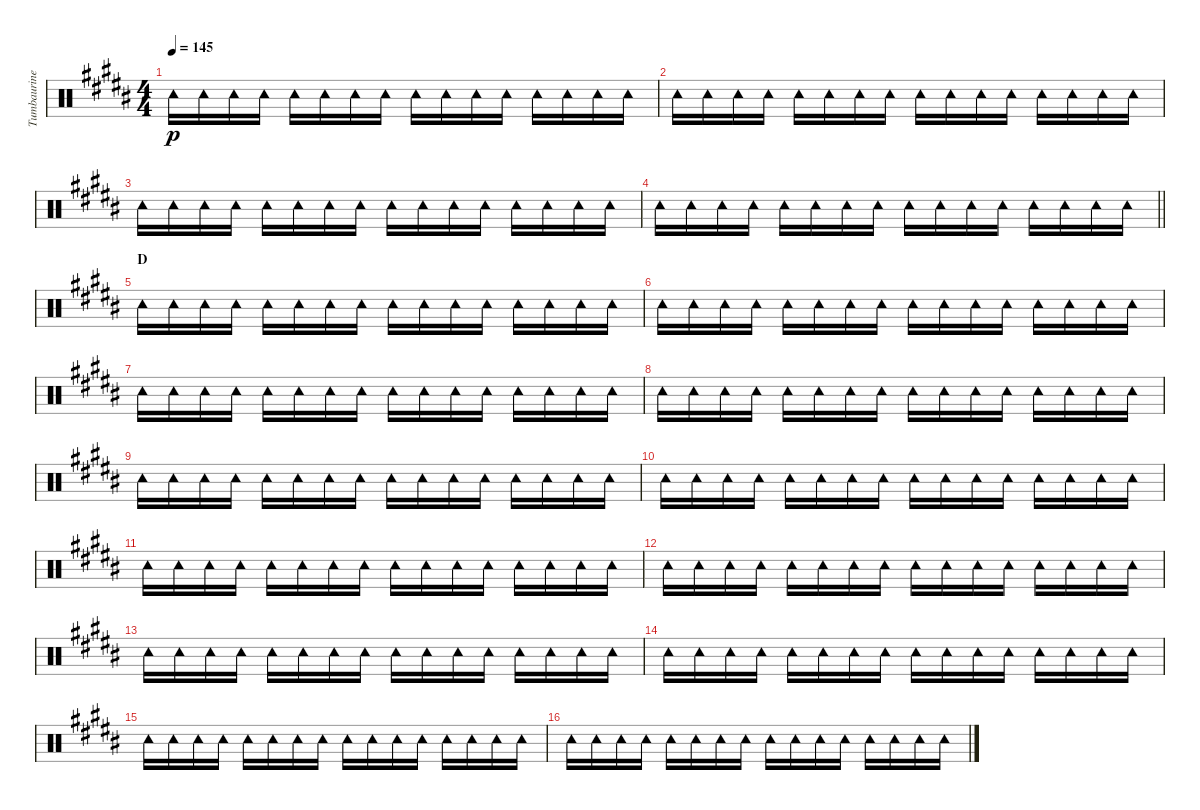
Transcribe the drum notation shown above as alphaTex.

\track ("Tumbaurine" "Tumbaurine") {instrument percussion}
\staff {score}
\articulation defaults
\ts (4 4)
\tempo 145
\clef neutral
\ks b "Tambourine (hit)".16{dy p} "Tambourine (hit)".16 "Tambourine (hit)".16 "Tambourine (hit)".16 "Tambourine (hit)".16 "Tambourine (hit)".16 "Tambourine (hit)".16 "Tambourine (hit)".16 "Tambourine (hit)".16 "Tambourine (hit)".16 "Tambourine (hit)".16 "Tambourine (hit)".16 "Tambourine (hit)".16 "Tambourine (hit)".16 "Tambourine (hit)".16 "Tambourine (hit)".16
|
"Tambourine (hit)".16 "Tambourine (hit)".16 "Tambourine (hit)".16 "Tambourine (hit)".16 "Tambourine (hit)".16 "Tambourine (hit)".16 "Tambourine (hit)".16 "Tambourine (hit)".16 "Tambourine (hit)".16 "Tambourine (hit)".16 "Tambourine (hit)".16 "Tambourine (hit)".16 "Tambourine (hit)".16 "Tambourine (hit)".16 "Tambourine (hit)".16 "Tambourine (hit)".16 |
"Tambourine (hit)".16 "Tambourine (hit)".16 "Tambourine (hit)".16 "Tambourine (hit)".16 "Tambourine (hit)".16 "Tambourine (hit)".16 "Tambourine (hit)".16 "Tambourine (hit)".16 "Tambourine (hit)".16 "Tambourine (hit)".16 "Tambourine (hit)".16 "Tambourine (hit)".16 "Tambourine (hit)".16 "Tambourine (hit)".16 "Tambourine (hit)".16 "Tambourine (hit)".16 |
\barLineRight lightlight "Tambourine (hit)".16 "Tambourine (hit)".16 "Tambourine (hit)".16 "Tambourine (hit)".16 "Tambourine (hit)".16 "Tambourine (hit)".16 "Tambourine (hit)".16 "Tambourine (hit)".16 "Tambourine (hit)".16 "Tambourine (hit)".16 "Tambourine (hit)".16 "Tambourine (hit)".16 "Tambourine (hit)".16 "Tambourine (hit)".16 "Tambourine (hit)".16 "Tambourine (hit)".16
|
\section ("" "D")
"Tambourine (hit)".16 "Tambourine (hit)".16 "Tambourine (hit)".16 "Tambourine (hit)".16 "Tambourine (hit)".16 "Tambourine (hit)".16 "Tambourine (hit)".16 "Tambourine (hit)".16 "Tambourine (hit)".16 "Tambourine (hit)".16 "Tambourine (hit)".16 "Tambourine (hit)".16 "Tambourine (hit)".16 "Tambourine (hit)".16 "Tambourine (hit)".16 "Tambourine (hit)".16 |
"Tambourine (hit)".16 "Tambourine (hit)".16 "Tambourine (hit)".16 "Tambourine (hit)".16 "Tambourine (hit)".16 "Tambourine (hit)".16 "Tambourine (hit)".16 "Tambourine (hit)".16 "Tambourine (hit)".16 "Tambourine (hit)".16 "Tambourine (hit)".16 "Tambourine (hit)".16 "Tambourine (hit)".16 "Tambourine (hit)".16 "Tambourine (hit)".16 "Tambourine (hit)".16 |
"Tambourine (hit)".16 "Tambourine (hit)".16 "Tambourine (hit)".16 "Tambourine (hit)".16 "Tambourine (hit)".16 "Tambourine (hit)".16 "Tambourine (hit)".16 "Tambourine (hit)".16 "Tambourine (hit)".16 "Tambourine (hit)".16 "Tambourine (hit)".16 "Tambourine (hit)".16 "Tambourine (hit)".16 "Tambourine (hit)".16 "Tambourine (hit)".16 "Tambourine (hit)".16 |
"Tambourine (hit)".16 "Tambourine (hit)".16 "Tambourine (hit)".16 "Tambourine (hit)".16 "Tambourine (hit)".16 "Tambourine (hit)".16 "Tambourine (hit)".16 "Tambourine (hit)".16 "Tambourine (hit)".16 "Tambourine (hit)".16 "Tambourine (hit)".16 "Tambourine (hit)".16 "Tambourine (hit)".16 "Tambourine (hit)".16 "Tambourine (hit)".16 "Tambourine (hit)".16 |
"Tambourine (hit)".16 "Tambourine (hit)".16 "Tambourine (hit)".16 "Tambourine (hit)".16 "Tambourine (hit)".16 "Tambourine (hit)".16 "Tambourine (hit)".16 "Tambourine (hit)".16 "Tambourine (hit)".16 "Tambourine (hit)".16 "Tambourine (hit)".16 "Tambourine (hit)".16 "Tambourine (hit)".16 "Tambourine (hit)".16 "Tambourine (hit)".16 "Tambourine (hit)".16 |
"Tambourine (hit)".16 "Tambourine (hit)".16 "Tambourine (hit)".16 "Tambourine (hit)".16 "Tambourine (hit)".16 "Tambourine (hit)".16 "Tambourine (hit)".16 "Tambourine (hit)".16 "Tambourine (hit)".16 "Tambourine (hit)".16 "Tambourine (hit)".16 "Tambourine (hit)".16 "Tambourine (hit)".16 "Tambourine (hit)".16 "Tambourine (hit)".16 "Tambourine (hit)".16 |
"Tambourine (hit)".16 "Tambourine (hit)".16 "Tambourine (hit)".16 "Tambourine (hit)".16 "Tambourine (hit)".16 "Tambourine (hit)".16 "Tambourine (hit)".16 "Tambourine (hit)".16 "Tambourine (hit)".16 "Tambourine (hit)".16 "Tambourine (hit)".16 "Tambourine (hit)".16 "Tambourine (hit)".16 "Tambourine (hit)".16 "Tambourine (hit)".16 "Tambourine (hit)".16 |
"Tambourine (hit)".16 "Tambourine (hit)".16 "Tambourine (hit)".16 "Tambourine (hit)".16 "Tambourine (hit)".16 "Tambourine (hit)".16 "Tambourine (hit)".16 "Tambourine (hit)".16 "Tambourine (hit)".16 "Tambourine (hit)".16 "Tambourine (hit)".16 "Tambourine (hit)".16 "Tambourine (hit)".16 "Tambourine (hit)".16 "Tambourine (hit)".16 "Tambourine (hit)".16 |
"Tambourine (hit)".16 "Tambourine (hit)".16 "Tambourine (hit)".16 "Tambourine (hit)".16 "Tambourine (hit)".16 "Tambourine (hit)".16 "Tambourine (hit)".16 "Tambourine (hit)".16 "Tambourine (hit)".16 "Tambourine (hit)".16 "Tambourine (hit)".16 "Tambourine (hit)".16 "Tambourine (hit)".16 "Tambourine (hit)".16 "Tambourine (hit)".16 "Tambourine (hit)".16 |
"Tambourine (hit)".16 "Tambourine (hit)".16 "Tambourine (hit)".16 "Tambourine (hit)".16 "Tambourine (hit)".16 "Tambourine (hit)".16 "Tambourine (hit)".16 "Tambourine (hit)".16 "Tambourine (hit)".16 "Tambourine (hit)".16 "Tambourine (hit)".16 "Tambourine (hit)".16 "Tambourine (hit)".16 "Tambourine (hit)".16 "Tambourine (hit)".16 "Tambourine (hit)".16 |
"Tambourine (hit)".16 "Tambourine (hit)".16 "Tambourine (hit)".16 "Tambourine (hit)".16 "Tambourine (hit)".16 "Tambourine (hit)".16 "Tambourine (hit)".16 "Tambourine (hit)".16 "Tambourine (hit)".16 "Tambourine (hit)".16 "Tambourine (hit)".16 "Tambourine (hit)".16 "Tambourine (hit)".16 "Tambourine (hit)".16 "Tambourine (hit)".16 "Tambourine (hit)".16 |
"Tambourine (hit)".16 "Tambourine (hit)".16 "Tambourine (hit)".16 "Tambourine (hit)".16 "Tambourine (hit)".16 "Tambourine (hit)".16 "Tambourine (hit)".16 "Tambourine (hit)".16 "Tambourine (hit)".16 "Tambourine (hit)".16 "Tambourine (hit)".16 "Tambourine (hit)".16 "Tambourine (hit)".16 "Tambourine (hit)".16 "Tambourine (hit)".16 "Tambourine (hit)".16
